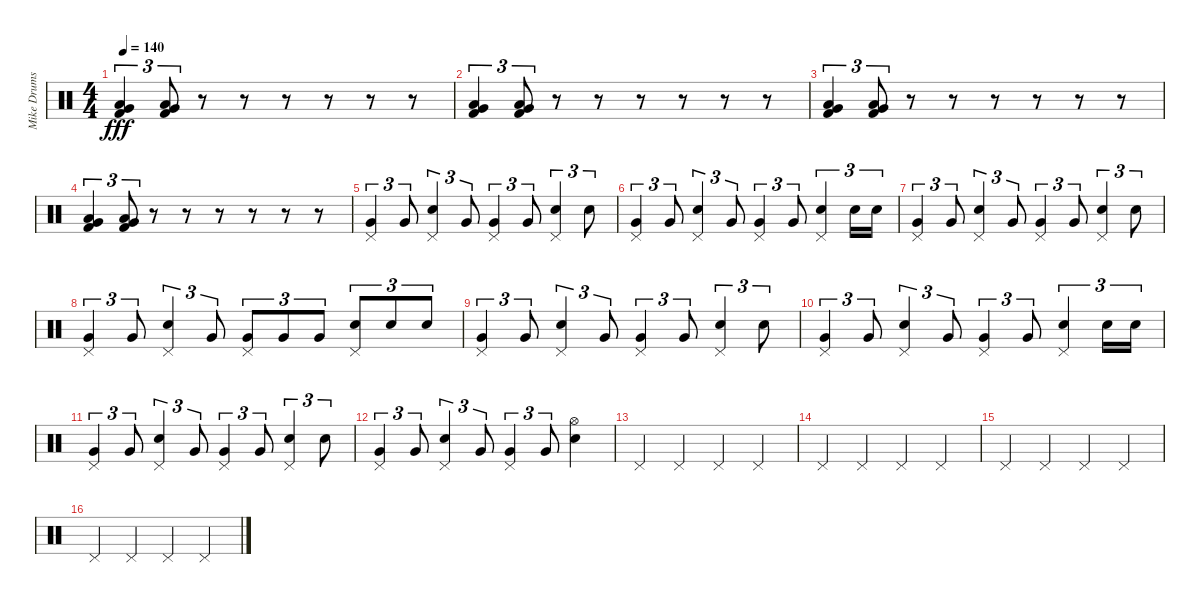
\track ("Mike Drums" "Mike Drums") {instrument percussion}
\staff {score}
\articulation defaults
\ts (4 4)
\tempo 140
\clef neutral
\ks c
("Low Tom (hit)" "Very Low Tom (hit)" "Kick (hit) 2").4{tu (3 2) dy fff} ("Low Tom (hit)" "Very Low Tom (hit)" "Kick (hit) 2").8{tu (3 2)} r.8 r.8 r.8 r.8 r.8 r.8 |
("Low Tom (hit)" "Very Low Tom (hit)" "Kick (hit) 2").4{tu (3 2)} ("Low Tom (hit)" "Very Low Tom (hit)" "Kick (hit) 2").8{tu (3 2)} r.8 r.8 r.8 r.8 r.8 r.8 |
("Low Tom (hit)" "Very Low Tom (hit)" "Kick (hit) 2").4{tu (3 2)} ("Low Tom (hit)" "Very Low Tom (hit)" "Kick (hit) 2").8{tu (3 2)} r.8 r.8 r.8 r.8 r.8 r.8 |
("Low Tom (hit)" "Very Low Tom (hit)" "Kick (hit) 2").4{tu (3 2)} ("Low Tom (hit)" "Very Low Tom (hit)" "Kick (hit) 2").8{tu (3 2)} r.8 r.8 r.8 r.8 r.8 r.8 |
("Pedal Hi-Hat (hit)" "Very Low Tom (hit)").4{tu (3 2)} "Very Low Tom (hit)".8{tu (3 2)} ("Pedal Hi-Hat (hit)" "Electric Snare (hit)").4{tu (3 2)} "Very Low Tom (hit)".8{tu (3 2)} ("Pedal Hi-Hat (hit)" "Very Low Tom (hit)").4{tu (3 2)} "Very Low Tom (hit)".8{tu (3 2)} ("Pedal Hi-Hat (hit)" "Electric Snare (hit)").4{tu (3 2)} "Electric Snare (hit)".8{tu (3 2)} |
("Pedal Hi-Hat (hit)" "Very Low Tom (hit)").4{tu (3 2)} "Very Low Tom (hit)".8{tu (3 2)} ("Pedal Hi-Hat (hit)" "Electric Snare (hit)").4{tu (3 2)} "Very Low Tom (hit)".8{tu (3 2)} ("Pedal Hi-Hat (hit)" "Very Low Tom (hit)").4{tu (3 2)} "Very Low Tom (hit)".8{tu (3 2)} ("Pedal Hi-Hat (hit)" "Electric Snare (hit)").4{tu (3 2)} "Electric Snare (hit)".16{tu (3 2)} "Electric Snare (hit)".16{tu (3 2)} |
("Pedal Hi-Hat (hit)" "Very Low Tom (hit)").4{tu (3 2)} "Very Low Tom (hit)".8{tu (3 2)} ("Pedal Hi-Hat (hit)" "Electric Snare (hit)").4{tu (3 2)} "Very Low Tom (hit)".8{tu (3 2)} ("Pedal Hi-Hat (hit)" "Very Low Tom (hit)").4{tu (3 2)} "Very Low Tom (hit)".8{tu (3 2)} ("Pedal Hi-Hat (hit)" "Electric Snare (hit)").4{tu (3 2)} "Electric Snare (hit)".8{tu (3 2)} |
("Pedal Hi-Hat (hit)" "Very Low Tom (hit)").4{tu (3 2)} "Very Low Tom (hit)".8{tu (3 2)} ("Pedal Hi-Hat (hit)" "Electric Snare (hit)").4{tu (3 2)} "Very Low Tom (hit)".8{tu (3 2)} ("Pedal Hi-Hat (hit)" "Very Low Tom (hit)").8{tu (3 2)} "Very Low Tom (hit)".8{tu (3 2)} "Very Low Tom (hit)".8{tu (3 2)} ("Pedal Hi-Hat (hit)" "Electric Snare (hit)").8{tu (3 2)} "Electric Snare (hit)".8{tu (3 2)} "Electric Snare (hit)".8{tu (3 2)} |
("Pedal Hi-Hat (hit)" "Very Low Tom (hit)").4{tu (3 2)} "Very Low Tom (hit)".8{tu (3 2)} ("Pedal Hi-Hat (hit)" "Electric Snare (hit)").4{tu (3 2)} "Very Low Tom (hit)".8{tu (3 2)} ("Pedal Hi-Hat (hit)" "Very Low Tom (hit)").4{tu (3 2)} "Very Low Tom (hit)".8{tu (3 2)} ("Pedal Hi-Hat (hit)" "Electric Snare (hit)").4{tu (3 2)} "Electric Snare (hit)".8{tu (3 2)} |
("Pedal Hi-Hat (hit)" "Very Low Tom (hit)").4{tu (3 2)} "Very Low Tom (hit)".8{tu (3 2)} ("Pedal Hi-Hat (hit)" "Electric Snare (hit)").4{tu (3 2)} "Very Low Tom (hit)".8{tu (3 2)} ("Pedal Hi-Hat (hit)" "Very Low Tom (hit)").4{tu (3 2)} "Very Low Tom (hit)".8{tu (3 2)} ("Pedal Hi-Hat (hit)" "Electric Snare (hit)").4{tu (3 2)} "Electric Snare (hit)".16{tu (3 2)} "Electric Snare (hit)".16{tu (3 2)} |
("Pedal Hi-Hat (hit)" "Very Low Tom (hit)").4{tu (3 2)} "Very Low Tom (hit)".8{tu (3 2)} ("Pedal Hi-Hat (hit)" "Electric Snare (hit)").4{tu (3 2)} "Very Low Tom (hit)".8{tu (3 2)} ("Pedal Hi-Hat (hit)" "Very Low Tom (hit)").4{tu (3 2)} "Very Low Tom (hit)".8{tu (3 2)} ("Pedal Hi-Hat (hit)" "Electric Snare (hit)").4{tu (3 2)} "Electric Snare (hit)".8{tu (3 2)} |
("Pedal Hi-Hat (hit)" "Very Low Tom (hit)").4{tu (3 2)} "Very Low Tom (hit)".8{tu (3 2)} ("Pedal Hi-Hat (hit)" "Electric Snare (hit)").4{tu (3 2)} "Very Low Tom (hit)".8{tu (3 2)} ("Pedal Hi-Hat (hit)" "Very Low Tom (hit)").4{tu (3 2)} "Very Low Tom (hit)".8{tu (3 2)} ("Hi-Hat (open)" "Electric Snare (hit)").4 |
"Pedal Hi-Hat (hit)".4 "Pedal Hi-Hat (hit)".4 "Pedal Hi-Hat (hit)".4 "Pedal Hi-Hat (hit)".4 |
"Pedal Hi-Hat (hit)".4 "Pedal Hi-Hat (hit)".4 "Pedal Hi-Hat (hit)".4 "Pedal Hi-Hat (hit)".4 |
"Pedal Hi-Hat (hit)".4 "Pedal Hi-Hat (hit)".4 "Pedal Hi-Hat (hit)".4 "Pedal Hi-Hat (hit)".4 |
"Pedal Hi-Hat (hit)".4 "Pedal Hi-Hat (hit)".4 "Pedal Hi-Hat (hit)".4 "Pedal Hi-Hat (hit)".4
